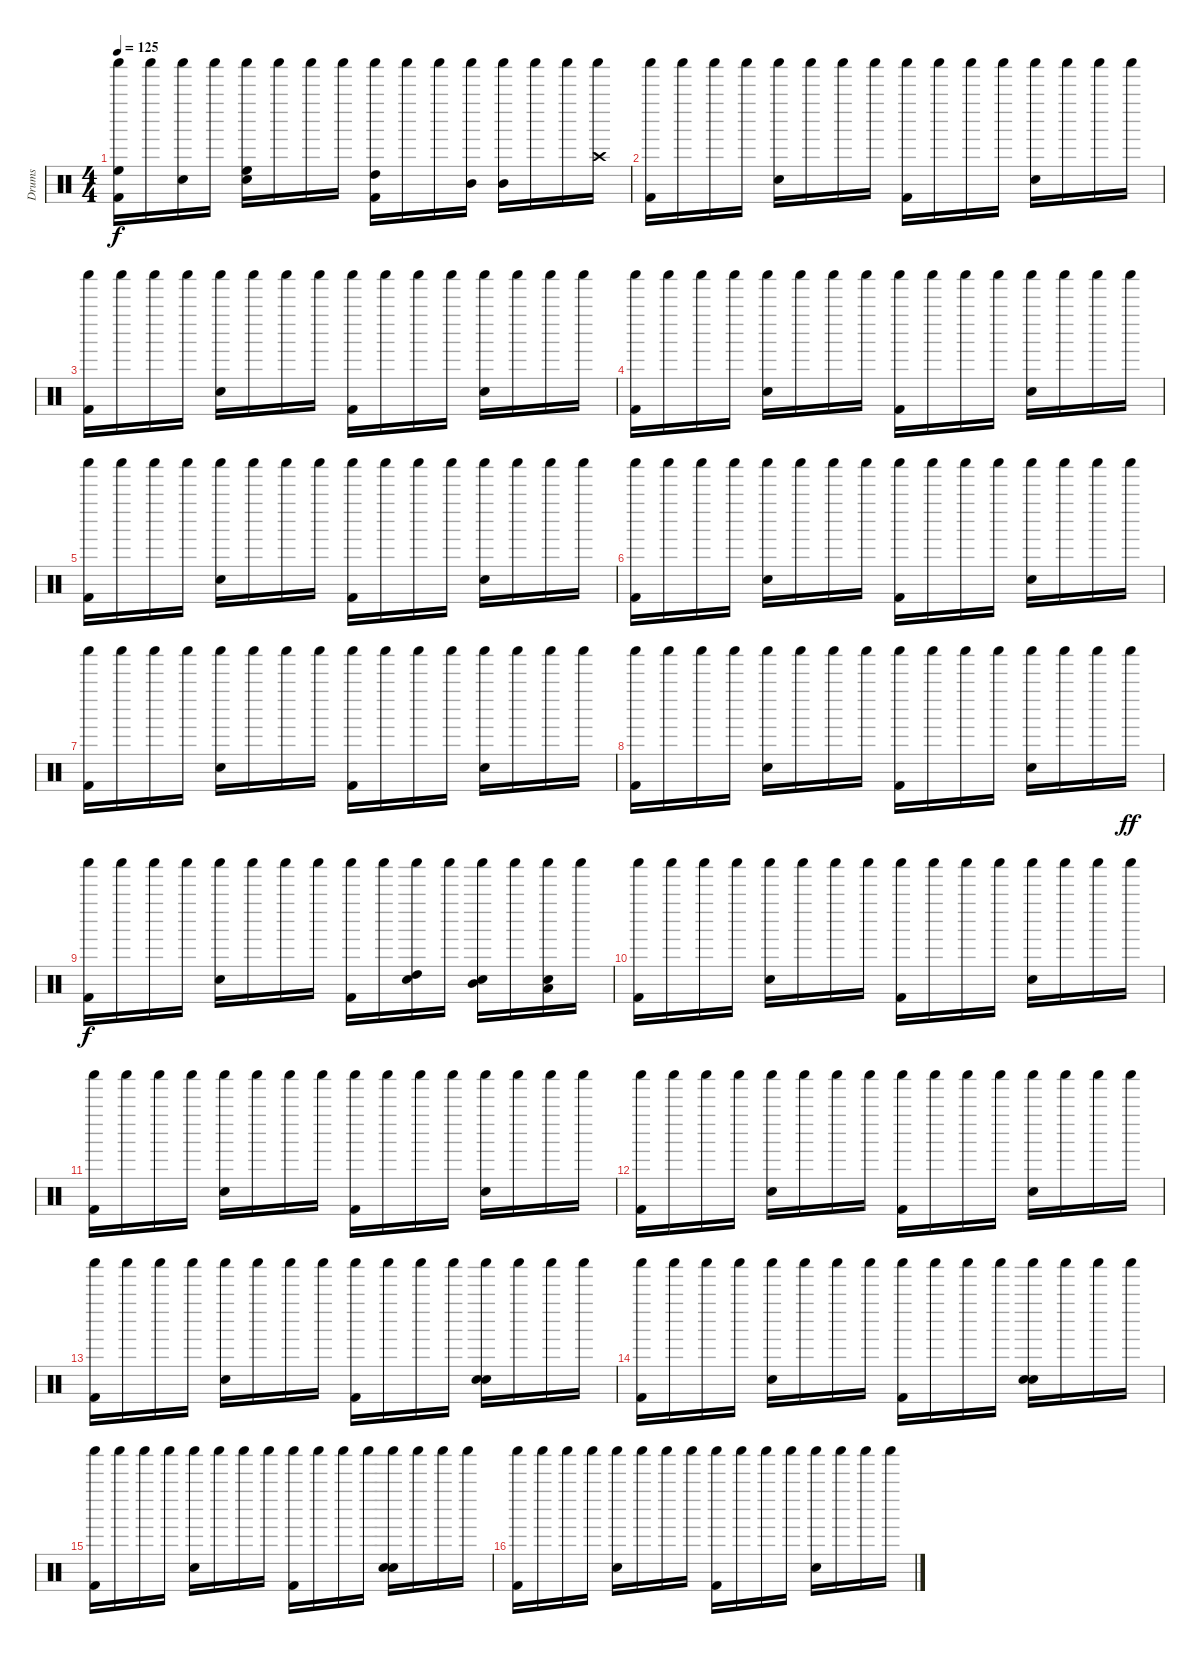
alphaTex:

\track ("Drums" "Drums") {instrument percussion}
\staff {score}
\articulation defaults
\ts (4 4)
\tempo 125
\clef neutral
\ks c
("Shaker (hit)" "High Floor Tom (hit)" "Kick (hit) 2").16{dy f} "Shaker (hit)".16 ("Shaker (hit)" "Electric Snare (hit)").16 "Shaker (hit)".16 ("Shaker (hit)" "High Floor Tom (hit)" "Snare (hit) 2").16 "Shaker (hit)".16 "Shaker (hit)".16 "Shaker (hit)".16 ("Shaker (hit)" "High Tom (hit)" "Kick (hit) 2").16 "Shaker (hit)".16 "Shaker (hit)".16 ("Shaker (hit)" "Mid Tom (hit)").16 ("Shaker (hit)" "Mid Tom (hit)").16 "Shaker (hit)".16 "Shaker (hit)".16 ("Shaker (hit)" "Crash high (hit)").16 |
("Shaker (hit)" "Kick (hit) 2").16 "Shaker (hit)".16 "Shaker (hit)".16 "Shaker (hit)".16 ("Shaker (hit)" "Snare (hit) 2").16 "Shaker (hit)".16 "Shaker (hit)".16 "Shaker (hit)".16 ("Shaker (hit)" "Kick (hit) 2").16 "Shaker (hit)".16 "Shaker (hit)".16 "Shaker (hit)".16 ("Shaker (hit)" "Snare (hit) 2").16 "Shaker (hit)".16 "Shaker (hit)".16 "Shaker (hit)".16 |
("Shaker (hit)" "Kick (hit) 2").16 "Shaker (hit)".16 "Shaker (hit)".16 "Shaker (hit)".16 ("Shaker (hit)" "Snare (hit) 2").16 "Shaker (hit)".16 "Shaker (hit)".16 "Shaker (hit)".16 ("Shaker (hit)" "Kick (hit) 2").16 "Shaker (hit)".16 "Shaker (hit)".16 "Shaker (hit)".16 ("Shaker (hit)" "Snare (hit) 2").16 "Shaker (hit)".16 "Shaker (hit)".16 "Shaker (hit)".16 |
("Shaker (hit)" "Kick (hit) 2").16 "Shaker (hit)".16 "Shaker (hit)".16 "Shaker (hit)".16 ("Shaker (hit)" "Snare (hit) 2").16 "Shaker (hit)".16 "Shaker (hit)".16 "Shaker (hit)".16 ("Shaker (hit)" "Kick (hit) 2").16 "Shaker (hit)".16 "Shaker (hit)".16 "Shaker (hit)".16 ("Shaker (hit)" "Snare (hit) 2").16 "Shaker (hit)".16 "Shaker (hit)".16 "Shaker (hit)".16 |
("Shaker (hit)" "Kick (hit) 2").16 "Shaker (hit)".16 "Shaker (hit)".16 "Shaker (hit)".16 ("Shaker (hit)" "Snare (hit) 2").16 "Shaker (hit)".16 "Shaker (hit)".16 "Shaker (hit)".16 ("Shaker (hit)" "Kick (hit) 2").16 "Shaker (hit)".16 "Shaker (hit)".16 "Shaker (hit)".16 ("Shaker (hit)" "Snare (hit) 2").16 "Shaker (hit)".16 "Shaker (hit)".16 "Shaker (hit)".16 |
("Shaker (hit)" "Kick (hit) 2").16 "Shaker (hit)".16 "Shaker (hit)".16 "Shaker (hit)".16 ("Shaker (hit)" "Snare (hit) 2").16 "Shaker (hit)".16 "Shaker (hit)".16 "Shaker (hit)".16 ("Shaker (hit)" "Kick (hit) 2").16 "Shaker (hit)".16 "Shaker (hit)".16 "Shaker (hit)".16 ("Shaker (hit)" "Snare (hit) 2").16 "Shaker (hit)".16 "Shaker (hit)".16 "Shaker (hit)".16 |
("Shaker (hit)" "Kick (hit) 2").16 "Shaker (hit)".16 "Shaker (hit)".16 "Shaker (hit)".16 ("Shaker (hit)" "Snare (hit) 2").16 "Shaker (hit)".16 "Shaker (hit)".16 "Shaker (hit)".16 ("Shaker (hit)" "Kick (hit) 2").16 "Shaker (hit)".16 "Shaker (hit)".16 "Shaker (hit)".16 ("Shaker (hit)" "Snare (hit) 2").16 "Shaker (hit)".16 "Shaker (hit)".16 "Shaker (hit)".16 |
("Shaker (hit)" "Kick (hit) 2").16 "Shaker (hit)".16 "Shaker (hit)".16 "Shaker (hit)".16 ("Shaker (hit)" "Snare (hit) 2").16 "Shaker (hit)".16 "Shaker (hit)".16 "Shaker (hit)".16 ("Shaker (hit)" "Kick (hit) 2").16 "Shaker (hit)".16 "Shaker (hit)".16 "Shaker (hit)".16 ("Shaker (hit)" "Snare (hit) 2").16 "Shaker (hit)".16 "Shaker (hit)".16 "Shaker (hit)".16{dy ff} |
("Shaker (hit)" "Kick (hit) 2").16{dy f} "Shaker (hit)".16 "Shaker (hit)".16 "Shaker (hit)".16 ("Shaker (hit)" "Snare (hit) 2").16 "Shaker (hit)".16 "Shaker (hit)".16 "Shaker (hit)".16 ("Shaker (hit)" "Kick (hit) 2").16 "Shaker (hit)".16 ("Shaker (hit)" "High Tom (hit)" "Snare (hit) 2").16 "Shaker (hit)".16 ("Shaker (hit)" "Mid Tom (hit)" "Snare (hit) 2").16 "Shaker (hit)".16 ("Shaker (hit)" "Low Tom (hit)" "Snare (hit) 2").16 "Shaker (hit)".16 |
("Shaker (hit)" "Kick (hit) 2").16 "Shaker (hit)".16 "Shaker (hit)".16 "Shaker (hit)".16 ("Shaker (hit)" "Snare (hit) 2").16 "Shaker (hit)".16 "Shaker (hit)".16 "Shaker (hit)".16 ("Shaker (hit)" "Kick (hit) 2").16 "Shaker (hit)".16 "Shaker (hit)".16 "Shaker (hit)".16 ("Shaker (hit)" "Snare (hit) 2").16 "Shaker (hit)".16 "Shaker (hit)".16 "Shaker (hit)".16 |
("Shaker (hit)" "Kick (hit) 2").16 "Shaker (hit)".16 "Shaker (hit)".16 "Shaker (hit)".16 ("Shaker (hit)" "Snare (hit) 2").16 "Shaker (hit)".16 "Shaker (hit)".16 "Shaker (hit)".16 ("Shaker (hit)" "Kick (hit) 2").16 "Shaker (hit)".16 "Shaker (hit)".16 "Shaker (hit)".16 ("Shaker (hit)" "Snare (hit) 2").16 "Shaker (hit)".16 "Shaker (hit)".16 "Shaker (hit)".16 |
("Shaker (hit)" "Kick (hit) 2").16 "Shaker (hit)".16 "Shaker (hit)".16 "Shaker (hit)".16 ("Shaker (hit)" "Snare (hit) 2").16 "Shaker (hit)".16 "Shaker (hit)".16 "Shaker (hit)".16 ("Shaker (hit)" "Kick (hit) 2").16 "Shaker (hit)".16 "Shaker (hit)".16 "Shaker (hit)".16 ("Shaker (hit)" "Snare (hit) 2").16 "Shaker (hit)".16 "Shaker (hit)".16 "Shaker (hit)".16 |
("Shaker (hit)" "Kick (hit) 2").16 "Shaker (hit)".16 "Shaker (hit)".16 "Shaker (hit)".16 ("Shaker (hit)" "Snare (hit) 2").16 "Shaker (hit)".16 "Shaker (hit)".16 "Shaker (hit)".16 ("Shaker (hit)" "Kick (hit) 2").16 "Shaker (hit)".16 "Shaker (hit)".16 "Shaker (hit)".16 ("Shaker (hit)" "Snare (hit) 2" "Snare (hit) 2").16 "Shaker (hit)".16 "Shaker (hit)".16 "Shaker (hit)".16 |
("Shaker (hit)" "Kick (hit) 2").16 "Shaker (hit)".16 "Shaker (hit)".16 "Shaker (hit)".16 ("Shaker (hit)" "Snare (hit) 2").16 "Shaker (hit)".16 "Shaker (hit)".16 "Shaker (hit)".16 ("Shaker (hit)" "Kick (hit) 2").16 "Shaker (hit)".16 "Shaker (hit)".16 "Shaker (hit)".16 ("Shaker (hit)" "Snare (hit) 2" "Snare (hit) 2").16 "Shaker (hit)".16 "Shaker (hit)".16 "Shaker (hit)".16 |
("Shaker (hit)" "Kick (hit) 2").16 "Shaker (hit)".16 "Shaker (hit)".16 "Shaker (hit)".16 ("Shaker (hit)" "Snare (hit) 2").16 "Shaker (hit)".16 "Shaker (hit)".16 "Shaker (hit)".16 ("Shaker (hit)" "Kick (hit) 2").16 "Shaker (hit)".16 "Shaker (hit)".16 "Shaker (hit)".16 ("Shaker (hit)" "Snare (hit) 2" "Snare (hit) 2").16 "Shaker (hit)".16 "Shaker (hit)".16 "Shaker (hit)".16 |
("Shaker (hit)" "Kick (hit) 2").16 "Shaker (hit)".16 "Shaker (hit)".16 "Shaker (hit)".16 ("Shaker (hit)" "Snare (hit) 2").16 "Shaker (hit)".16 "Shaker (hit)".16 "Shaker (hit)".16 ("Shaker (hit)" "Kick (hit) 2").16 "Shaker (hit)".16 "Shaker (hit)".16 "Shaker (hit)".16 ("Shaker (hit)" "Snare (hit) 2").16 "Shaker (hit)".16 "Shaker (hit)".16 "Shaker (hit)".16
